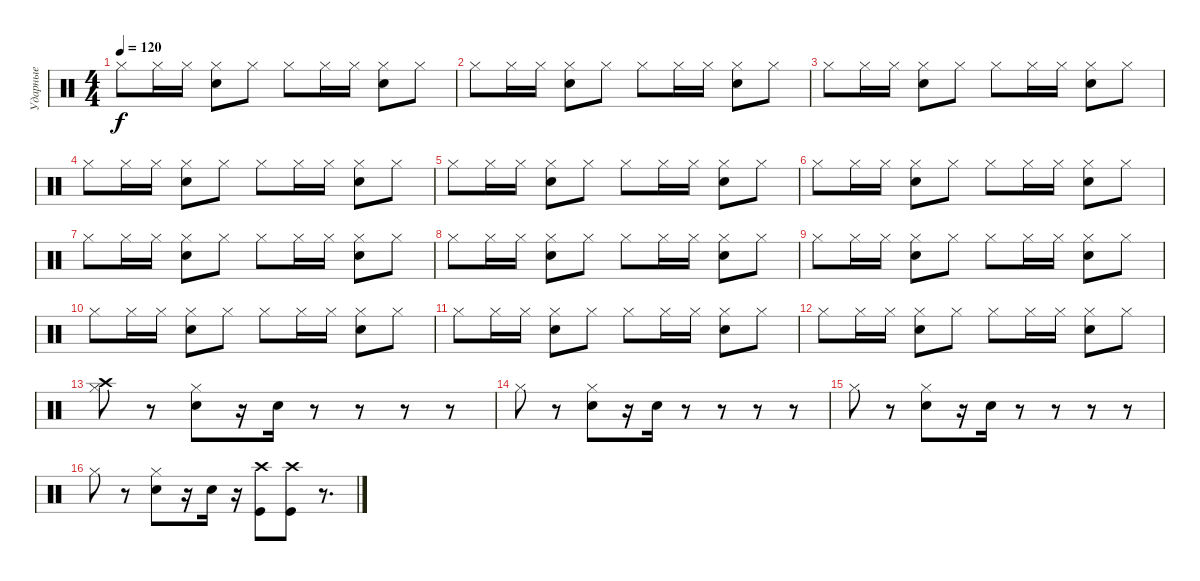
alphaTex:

\track ("Ударные" "Ударные") {instrument percussion}
\staff {score}
\articulation defaults
\ts (4 4)
\tempo 120
\clef neutral
\ks c "Hi-Hat (closed)".8{dy f} "Hi-Hat (closed)".16 "Hi-Hat (closed)".16
("Hi-Hat (closed)" "Electric Snare (hit)").8 "Hi-Hat (closed)".8 "Hi-Hat (closed)".8 "Hi-Hat (closed)".16 "Hi-Hat (closed)".16 ("Hi-Hat (closed)" "Electric Snare (hit)").8 "Hi-Hat (closed)".8 |
"Hi-Hat (closed)".8 "Hi-Hat (closed)".16 "Hi-Hat (closed)".16 ("Hi-Hat (closed)" "Electric Snare (hit)").8 "Hi-Hat (closed)".8 "Hi-Hat (closed)".8 "Hi-Hat (closed)".16 "Hi-Hat (closed)".16 ("Hi-Hat (closed)" "Electric Snare (hit)").8 "Hi-Hat (closed)".8 |
"Hi-Hat (closed)".8 "Hi-Hat (closed)".16 "Hi-Hat (closed)".16 ("Hi-Hat (closed)" "Electric Snare (hit)").8 "Hi-Hat (closed)".8 "Hi-Hat (closed)".8 "Hi-Hat (closed)".16 "Hi-Hat (closed)".16 ("Hi-Hat (closed)" "Electric Snare (hit)").8 "Hi-Hat (closed)".8 |
"Hi-Hat (closed)".8 "Hi-Hat (closed)".16 "Hi-Hat (closed)".16 ("Hi-Hat (closed)" "Electric Snare (hit)").8 "Hi-Hat (closed)".8 "Hi-Hat (closed)".8 "Hi-Hat (closed)".16 "Hi-Hat (closed)".16 ("Hi-Hat (closed)" "Electric Snare (hit)").8 "Hi-Hat (closed)".8 |
"Hi-Hat (closed)".8 "Hi-Hat (closed)".16 "Hi-Hat (closed)".16 ("Hi-Hat (closed)" "Electric Snare (hit)").8 "Hi-Hat (closed)".8 "Hi-Hat (closed)".8 "Hi-Hat (closed)".16 "Hi-Hat (closed)".16 ("Hi-Hat (closed)" "Electric Snare (hit)").8 "Hi-Hat (closed)".8 |
"Hi-Hat (closed)".8 "Hi-Hat (closed)".16 "Hi-Hat (closed)".16 ("Hi-Hat (closed)" "Electric Snare (hit)").8 "Hi-Hat (closed)".8 "Hi-Hat (closed)".8 "Hi-Hat (closed)".16 "Hi-Hat (closed)".16 ("Hi-Hat (closed)" "Electric Snare (hit)").8 "Hi-Hat (closed)".8 |
"Hi-Hat (closed)".8 "Hi-Hat (closed)".16 "Hi-Hat (closed)".16 ("Hi-Hat (closed)" "Electric Snare (hit)").8 "Hi-Hat (closed)".8 "Hi-Hat (closed)".8 "Hi-Hat (closed)".16 "Hi-Hat (closed)".16 ("Hi-Hat (closed)" "Electric Snare (hit)").8 "Hi-Hat (closed)".8 |
"Hi-Hat (closed)".8 "Hi-Hat (closed)".16 "Hi-Hat (closed)".16 ("Hi-Hat (closed)" "Electric Snare (hit)").8 "Hi-Hat (closed)".8 "Hi-Hat (closed)".8 "Hi-Hat (closed)".16 "Hi-Hat (closed)".16 ("Hi-Hat (closed)" "Electric Snare (hit)").8 "Hi-Hat (closed)".8 |
"Hi-Hat (closed)".8 "Hi-Hat (closed)".16 "Hi-Hat (closed)".16 ("Hi-Hat (closed)" "Electric Snare (hit)").8 "Hi-Hat (closed)".8 "Hi-Hat (closed)".8 "Hi-Hat (closed)".16 "Hi-Hat (closed)".16 ("Hi-Hat (closed)" "Electric Snare (hit)").8 "Hi-Hat (closed)".8 |
"Hi-Hat (closed)".8 "Hi-Hat (closed)".16 "Hi-Hat (closed)".16 ("Hi-Hat (closed)" "Electric Snare (hit)").8 "Hi-Hat (closed)".8 "Hi-Hat (closed)".8 "Hi-Hat (closed)".16 "Hi-Hat (closed)".16 ("Hi-Hat (closed)" "Electric Snare (hit)").8 "Hi-Hat (closed)".8 |
"Hi-Hat (closed)".8 "Hi-Hat (closed)".16 "Hi-Hat (closed)".16 ("Hi-Hat (closed)" "Electric Snare (hit)").8 "Hi-Hat (closed)".8 "Hi-Hat (closed)".8 "Hi-Hat (closed)".16 "Hi-Hat (closed)".16 ("Hi-Hat (closed)" "Electric Snare (hit)").8 "Hi-Hat (closed)".8 |
"Hi-Hat (closed)".8 "Hi-Hat (closed)".16 "Hi-Hat (closed)".16 ("Hi-Hat (closed)" "Electric Snare (hit)").8 "Hi-Hat (closed)".8 "Hi-Hat (closed)".8 "Hi-Hat (closed)".16 "Hi-Hat (closed)".16 ("Hi-Hat (closed)" "Electric Snare (hit)").8 "Hi-Hat (closed)".8 |
("Hi-Hat (closed)" "Crash high (hit)").8 r.8 ("Hi-Hat (closed)" "Electric Snare (hit)").8 r.16 "Electric Snare (hit)".16 r.8 r.8 r.8 r.8 |
"Hi-Hat (closed)".8 r.8 ("Hi-Hat (closed)" "Electric Snare (hit)").8 r.16 "Electric Snare (hit)".16 r.8 r.8 r.8 r.8 |
"Hi-Hat (closed)".8 r.8 ("Hi-Hat (closed)" "Electric Snare (hit)").8 r.16 "Electric Snare (hit)".16 r.8 r.8 r.8 r.8 |
"Hi-Hat (closed)".8 r.8 ("Hi-Hat (closed)" "Electric Snare (hit)").8 r.16 "Electric Snare (hit)".16 r.16 ("Crash high (hit)" "Kick (hit)").8 ("Crash high (hit)" "Kick (hit)").8 r.8{d}
